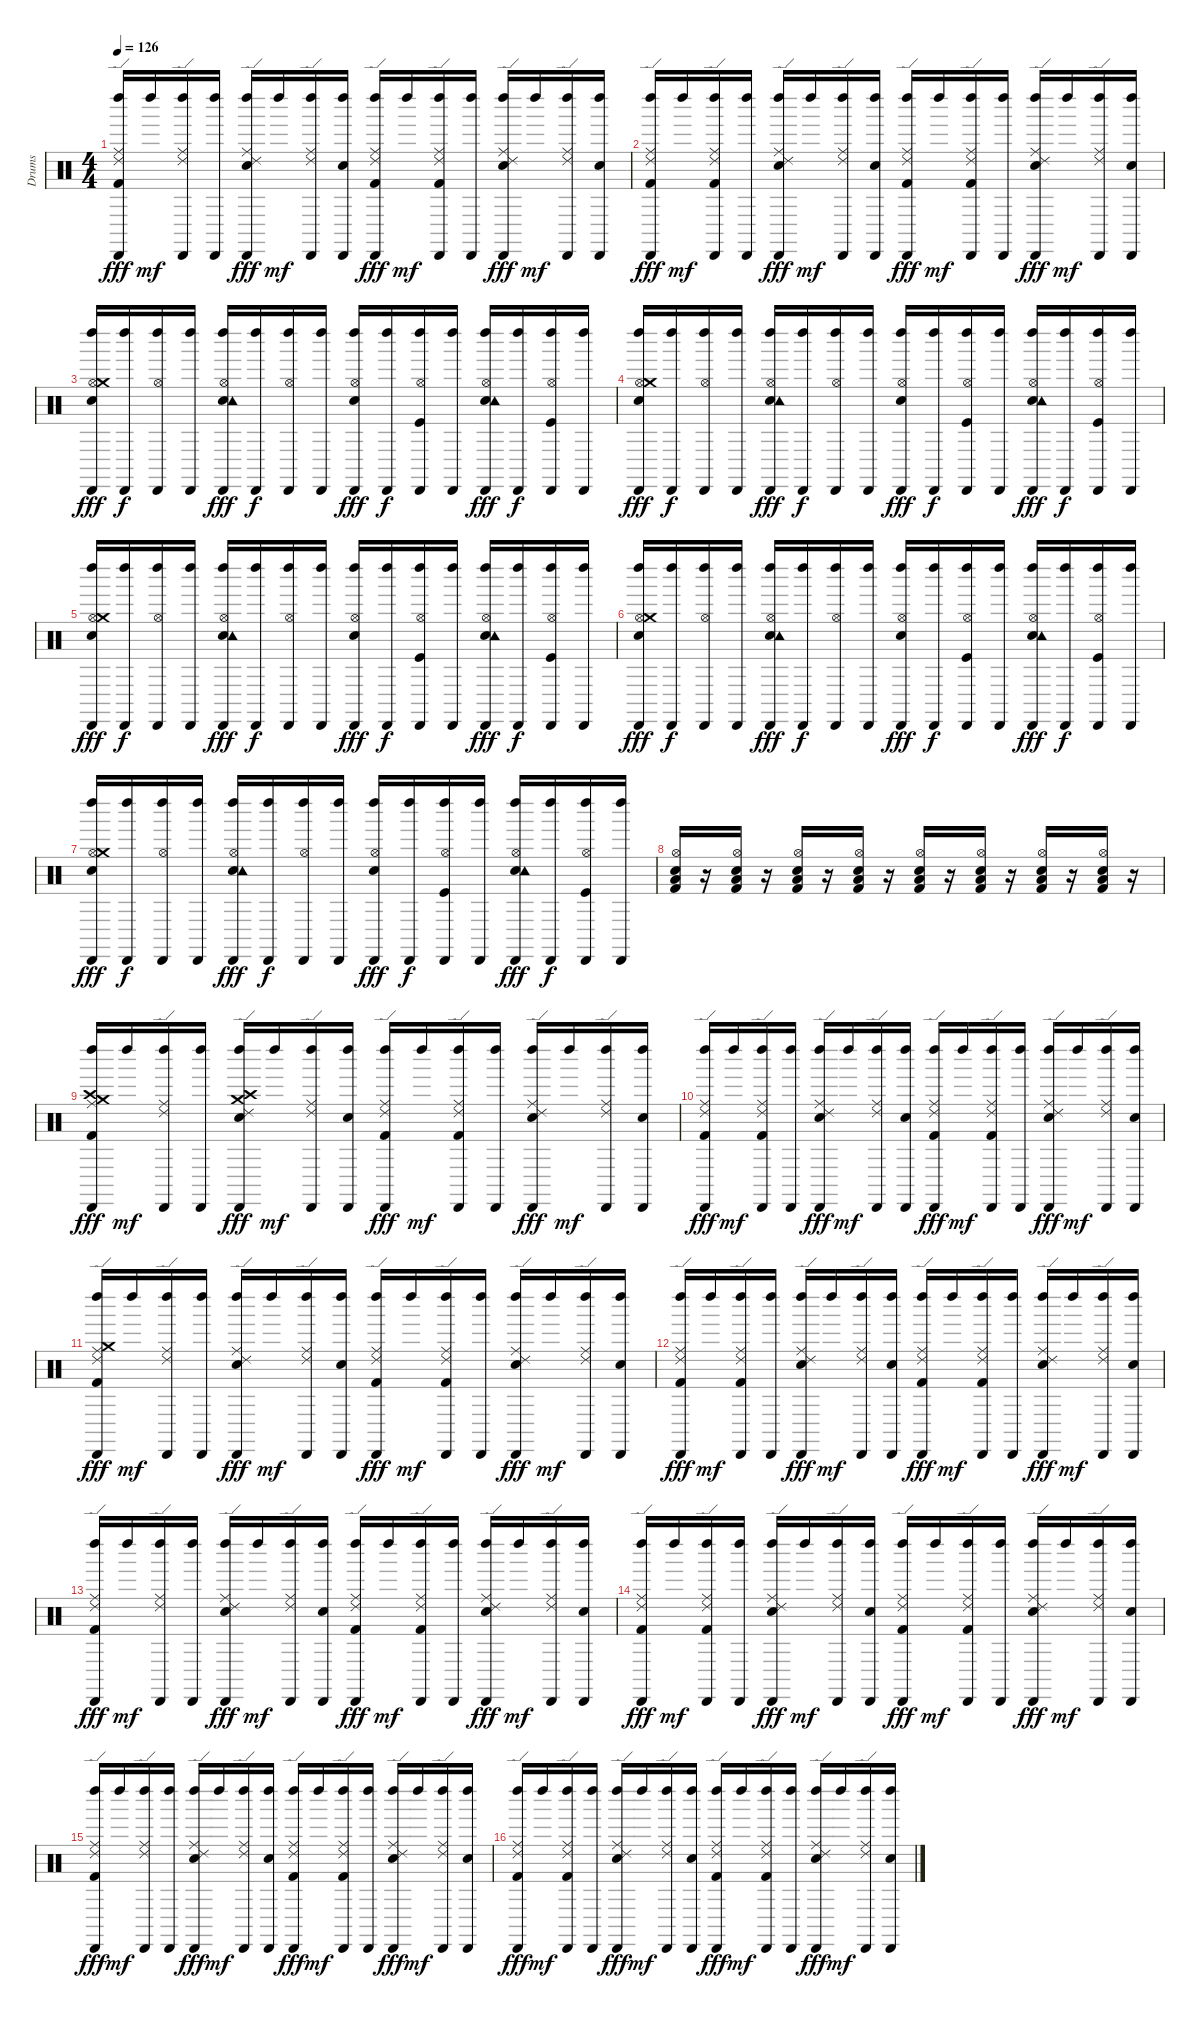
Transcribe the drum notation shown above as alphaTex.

\track ("Drums" "Drums") {instrument percussion}
\staff {score}
\articulation defaults
\ts (4 4)
\tempo 126
\clef neutral
\ks c
("Cabasa (hit)" "Kick (hit) 2" "Left Maraca (hit)" "Ride (middle)" "Ride (edge) 2").16{dy fff} "Left Maraca (hit)".16{dy mf} ("Cabasa (hit)" "Left Maraca (hit)" "Ride (edge) 2" "Ride (middle)").16 ("Cabasa (hit)" "Left Maraca (hit)").16 ("Left Maraca (hit)" "Ride (edge) 2" "Ride (middle)" "Cabasa (hit)" "Electric Snare (hit)").16{dy fff} "Left Maraca (hit)".16{dy mf} ("Ride (edge) 2" "Cabasa (hit)" "Left Maraca (hit)" "Ride (middle)").16 ("Electric Snare (hit)" "Cabasa (hit)" "Left Maraca (hit)").16 ("Kick (hit) 2" "Cabasa (hit)" "Ride (middle)" "Left Maraca (hit)" "Ride (edge) 2").16{dy fff} "Left Maraca (hit)".16{dy mf} ("Cabasa (hit)" "Ride (middle)" "Ride (edge) 2" "Left Maraca (hit)" "Kick (hit) 2").16 ("Left Maraca (hit)" "Cabasa (hit)").16 ("Ride (edge) 2" "Electric Snare (hit)" "Left Maraca (hit)" "Cabasa (hit)" "Ride (middle)").16{dy fff} "Left Maraca (hit)".16{dy mf} ("Left Maraca (hit)" "Cabasa (hit)" "Ride (middle)" "Ride (edge) 2").16 ("Left Maraca (hit)" "Cabasa (hit)" "Electric Snare (hit)").16 |
("Cabasa (hit)" "Kick (hit) 2" "Left Maraca (hit)" "Ride (middle)" "Ride (edge) 2").16{dy fff} "Left Maraca (hit)".16{dy mf} ("Kick (hit) 2" "Cabasa (hit)" "Left Maraca (hit)" "Ride (edge) 2" "Ride (middle)").16 ("Cabasa (hit)" "Left Maraca (hit)").16 ("Left Maraca (hit)" "Ride (edge) 2" "Ride (middle)" "Cabasa (hit)" "Electric Snare (hit)").16{dy fff} "Left Maraca (hit)".16{dy mf} ("Ride (edge) 2" "Cabasa (hit)" "Left Maraca (hit)" "Ride (middle)").16 ("Electric Snare (hit)" "Cabasa (hit)" "Left Maraca (hit)").16 ("Kick (hit) 2" "Cabasa (hit)" "Ride (middle)" "Left Maraca (hit)" "Ride (edge) 2").16{dy fff} "Left Maraca (hit)".16{dy mf} ("Cabasa (hit)" "Ride (middle)" "Ride (edge) 2" "Left Maraca (hit)" "Kick (hit) 2").16 ("Left Maraca (hit)" "Cabasa (hit)").16 ("Ride (edge) 2" "Electric Snare (hit)" "Left Maraca (hit)" "Cabasa (hit)" "Ride (middle)").16{dy fff} "Left Maraca (hit)".16{dy mf} ("Left Maraca (hit)" "Cabasa (hit)" "Ride (middle)" "Ride (edge) 2").16 ("Left Maraca (hit)" "Cabasa (hit)" "Electric Snare (hit)").16 |
("Electric Snare (hit)" "Left Maraca (hit)" "Hi-Hat (open)" "Crash medium (hit)" "Cabasa (hit)").16{dy fff} ("Cabasa (hit)" "Left Maraca (hit)").16{dy f} ("Left Maraca (hit)" "Hi-Hat (open)" "Cabasa (hit)").16 ("Left Maraca (hit)" "Cabasa (hit)").16 ("Electric Snare (hit)" "Tambourine (hit)" "Cabasa (hit)" "Hi-Hat (open)" "Left Maraca (hit)").16{dy fff} ("Left Maraca (hit)" "Cabasa (hit)").16{dy f} ("Left Maraca (hit)" "Cabasa (hit)" "Hi-Hat (open)").16 ("Left Maraca (hit)" "Cabasa (hit)").16 ("Electric Snare (hit)" "Cabasa (hit)" "Hi-Hat (open)" "Left Maraca (hit)").16{dy fff} ("Left Maraca (hit)" "Cabasa (hit)").16{dy f} ("Kick (hit)" "Left Maraca (hit)" "Cabasa (hit)" "Hi-Hat (open)").16 ("Left Maraca (hit)" "Cabasa (hit)").16 ("Electric Snare (hit)" "Left Maraca (hit)" "Hi-Hat (open)" "Cabasa (hit)" "Tambourine (hit)").16{dy fff} ("Left Maraca (hit)" "Cabasa (hit)").16{dy f} ("Kick (hit)" "Hi-Hat (open)" "Cabasa (hit)" "Left Maraca (hit)").16 ("Left Maraca (hit)" "Cabasa (hit)").16 |
("Electric Snare (hit)" "Left Maraca (hit)" "Hi-Hat (open)" "Crash medium (hit)" "Cabasa (hit)").16{dy fff} ("Cabasa (hit)" "Left Maraca (hit)").16{dy f} ("Left Maraca (hit)" "Hi-Hat (open)" "Cabasa (hit)").16 ("Left Maraca (hit)" "Cabasa (hit)").16 ("Electric Snare (hit)" "Tambourine (hit)" "Cabasa (hit)" "Hi-Hat (open)" "Left Maraca (hit)").16{dy fff} ("Left Maraca (hit)" "Cabasa (hit)").16{dy f} ("Left Maraca (hit)" "Cabasa (hit)" "Hi-Hat (open)").16 ("Left Maraca (hit)" "Cabasa (hit)").16 ("Electric Snare (hit)" "Cabasa (hit)" "Hi-Hat (open)" "Left Maraca (hit)").16{dy fff} ("Left Maraca (hit)" "Cabasa (hit)").16{dy f} ("Kick (hit)" "Left Maraca (hit)" "Cabasa (hit)" "Hi-Hat (open)").16 ("Left Maraca (hit)" "Cabasa (hit)").16 ("Electric Snare (hit)" "Left Maraca (hit)" "Hi-Hat (open)" "Cabasa (hit)" "Tambourine (hit)").16{dy fff} ("Left Maraca (hit)" "Cabasa (hit)").16{dy f} ("Kick (hit)" "Hi-Hat (open)" "Cabasa (hit)" "Left Maraca (hit)").16 ("Left Maraca (hit)" "Cabasa (hit)").16 |
("Electric Snare (hit)" "Left Maraca (hit)" "Hi-Hat (open)" "Crash medium (hit)" "Cabasa (hit)").16{dy fff} ("Cabasa (hit)" "Left Maraca (hit)").16{dy f} ("Left Maraca (hit)" "Hi-Hat (open)" "Cabasa (hit)").16 ("Left Maraca (hit)" "Cabasa (hit)").16 ("Electric Snare (hit)" "Tambourine (hit)" "Cabasa (hit)" "Hi-Hat (open)" "Left Maraca (hit)").16{dy fff} ("Left Maraca (hit)" "Cabasa (hit)").16{dy f} ("Left Maraca (hit)" "Cabasa (hit)" "Hi-Hat (open)").16 ("Left Maraca (hit)" "Cabasa (hit)").16 ("Electric Snare (hit)" "Cabasa (hit)" "Hi-Hat (open)" "Left Maraca (hit)").16{dy fff} ("Left Maraca (hit)" "Cabasa (hit)").16{dy f} ("Kick (hit)" "Left Maraca (hit)" "Cabasa (hit)" "Hi-Hat (open)").16 ("Left Maraca (hit)" "Cabasa (hit)").16 ("Electric Snare (hit)" "Left Maraca (hit)" "Hi-Hat (open)" "Cabasa (hit)" "Tambourine (hit)").16{dy fff} ("Left Maraca (hit)" "Cabasa (hit)").16{dy f} ("Kick (hit)" "Hi-Hat (open)" "Cabasa (hit)" "Left Maraca (hit)").16 ("Left Maraca (hit)" "Cabasa (hit)").16 |
("Electric Snare (hit)" "Left Maraca (hit)" "Hi-Hat (open)" "Crash medium (hit)" "Cabasa (hit)").16{dy fff} ("Cabasa (hit)" "Left Maraca (hit)").16{dy f} ("Left Maraca (hit)" "Hi-Hat (open)" "Cabasa (hit)").16 ("Left Maraca (hit)" "Cabasa (hit)").16 ("Electric Snare (hit)" "Tambourine (hit)" "Cabasa (hit)" "Hi-Hat (open)" "Left Maraca (hit)").16{dy fff} ("Left Maraca (hit)" "Cabasa (hit)").16{dy f} ("Left Maraca (hit)" "Cabasa (hit)" "Hi-Hat (open)").16 ("Left Maraca (hit)" "Cabasa (hit)").16 ("Electric Snare (hit)" "Cabasa (hit)" "Hi-Hat (open)" "Left Maraca (hit)").16{dy fff} ("Left Maraca (hit)" "Cabasa (hit)").16{dy f} ("Kick (hit)" "Left Maraca (hit)" "Cabasa (hit)" "Hi-Hat (open)").16 ("Left Maraca (hit)" "Cabasa (hit)").16 ("Electric Snare (hit)" "Left Maraca (hit)" "Hi-Hat (open)" "Cabasa (hit)" "Tambourine (hit)").16{dy fff} ("Left Maraca (hit)" "Cabasa (hit)").16{dy f} ("Kick (hit)" "Hi-Hat (open)" "Cabasa (hit)" "Left Maraca (hit)").16 ("Left Maraca (hit)" "Cabasa (hit)").16 |
("Electric Snare (hit)" "Left Maraca (hit)" "Hi-Hat (open)" "Crash medium (hit)" "Cabasa (hit)").16{dy fff} ("Cabasa (hit)" "Left Maraca (hit)").16{dy f} ("Left Maraca (hit)" "Hi-Hat (open)" "Cabasa (hit)").16 ("Left Maraca (hit)" "Cabasa (hit)").16 ("Electric Snare (hit)" "Tambourine (hit)" "Cabasa (hit)" "Hi-Hat (open)" "Left Maraca (hit)").16{dy fff} ("Left Maraca (hit)" "Cabasa (hit)").16{dy f} ("Left Maraca (hit)" "Cabasa (hit)" "Hi-Hat (open)").16 ("Left Maraca (hit)" "Cabasa (hit)").16 ("Electric Snare (hit)" "Cabasa (hit)" "Hi-Hat (open)" "Left Maraca (hit)").16{dy fff} ("Left Maraca (hit)" "Cabasa (hit)").16{dy f} ("Kick (hit)" "Left Maraca (hit)" "Cabasa (hit)" "Hi-Hat (open)").16 ("Left Maraca (hit)" "Cabasa (hit)").16 ("Electric Snare (hit)" "Left Maraca (hit)" "Hi-Hat (open)" "Cabasa (hit)" "Tambourine (hit)").16{dy fff} ("Left Maraca (hit)" "Cabasa (hit)").16{dy f} ("Kick (hit)" "Hi-Hat (open)" "Cabasa (hit)" "Left Maraca (hit)").16 ("Left Maraca (hit)" "Cabasa (hit)").16 |
("Electric Snare (hit)" "Kick (hit) 2" "Hi-Hat (open)" "Low Tom (hit)").16 r.16 ("Kick (hit) 2" "Hi-Hat (open)" "Electric Snare (hit)" "Low Tom (hit)").16 r.16 ("Electric Snare (hit)" "Kick (hit) 2" "Low Tom (hit)" "Hi-Hat (open)").16 r.16 ("Hi-Hat (open)" "Kick (hit) 2" "Low Tom (hit)" "Electric Snare (hit)").16 r.16 ("Hi-Hat (open)" "Low Tom (hit)" "Electric Snare (hit)" "Kick (hit) 2").16 r.16 ("Low Tom (hit)" "Electric Snare (hit)" "Kick (hit) 2" "Hi-Hat (open)").16 r.16 ("Kick (hit) 2" "Hi-Hat (open)" "Low Tom (hit)" "Electric Snare (hit)").16 r.16 ("Electric Snare (hit)" "Kick (hit) 2" "Hi-Hat (open)" "Low Tom (hit)").16 r.16 |
("Left Maraca (hit)" "Crash medium (hit)" "Crash high (hit)" "Kick (hit) 2" "Cabasa (hit)" "Ride (middle)").16{dy fff} "Left Maraca (hit)".16{dy mf} ("Cabasa (hit)" "Left Maraca (hit)" "Ride (edge) 2" "Ride (middle)").16 ("Cabasa (hit)" "Left Maraca (hit)").16 ("Electric Snare (hit)" "Crash medium (hit)" "Crash high (hit)" "Left Maraca (hit)" "Cabasa (hit)" "Ride (edge) 2").16{dy fff} "Left Maraca (hit)".16{dy mf} ("Cabasa (hit)" "Left Maraca (hit)" "Ride (edge) 2" "Ride (middle)").16 ("Cabasa (hit)" "Left Maraca (hit)" "Electric Snare (hit)").16 ("Cabasa (hit)" "Left Maraca (hit)" "Kick (hit) 2" "Ride (middle)" "Ride (edge) 2").16{dy fff} "Left Maraca (hit)".16{dy mf} ("Kick (hit) 2" "Left Maraca (hit)" "Cabasa (hit)" "Ride (middle)" "Ride (edge) 2").16 ("Cabasa (hit)" "Left Maraca (hit)").16 ("Ride (edge) 2" "Electric Snare (hit)" "Ride (middle)" "Cabasa (hit)" "Left Maraca (hit)").16{dy fff} "Left Maraca (hit)".16{dy mf} ("Left Maraca (hit)" "Ride (middle)" "Ride (edge) 2" "Cabasa (hit)").16 ("Electric Snare (hit)" "Left Maraca (hit)" "Cabasa (hit)").16 |
("Cabasa (hit)" "Kick (hit) 2" "Left Maraca (hit)" "Ride (middle)" "Ride (edge) 2").16{dy fff} "Left Maraca (hit)".16{dy mf} ("Kick (hit) 2" "Cabasa (hit)" "Left Maraca (hit)" "Ride (edge) 2" "Ride (middle)").16 ("Cabasa (hit)" "Left Maraca (hit)").16 ("Left Maraca (hit)" "Ride (edge) 2" "Ride (middle)" "Cabasa (hit)" "Electric Snare (hit)").16{dy fff} "Left Maraca (hit)".16{dy mf} ("Ride (edge) 2" "Cabasa (hit)" "Left Maraca (hit)" "Ride (middle)").16 ("Electric Snare (hit)" "Cabasa (hit)" "Left Maraca (hit)").16 ("Kick (hit) 2" "Cabasa (hit)" "Ride (middle)" "Left Maraca (hit)" "Ride (edge) 2").16{dy fff} "Left Maraca (hit)".16{dy mf} ("Cabasa (hit)" "Ride (middle)" "Ride (edge) 2" "Left Maraca (hit)" "Kick (hit) 2").16 ("Left Maraca (hit)" "Cabasa (hit)").16 ("Ride (edge) 2" "Electric Snare (hit)" "Left Maraca (hit)" "Cabasa (hit)" "Ride (middle)").16{dy fff} "Left Maraca (hit)".16{dy mf} ("Left Maraca (hit)" "Cabasa (hit)" "Ride (middle)" "Ride (edge) 2").16 ("Left Maraca (hit)" "Cabasa (hit)" "Electric Snare (hit)").16 |
("Crash medium (hit)" "Cabasa (hit)" "Kick (hit) 2" "Left Maraca (hit)" "Ride (middle)" "Ride (edge) 2").16{dy fff} "Left Maraca (hit)".16{dy mf} ("Cabasa (hit)" "Left Maraca (hit)" "Ride (edge) 2" "Ride (middle)").16 ("Cabasa (hit)" "Left Maraca (hit)").16 ("Left Maraca (hit)" "Ride (edge) 2" "Ride (middle)" "Cabasa (hit)" "Electric Snare (hit)").16{dy fff} "Left Maraca (hit)".16{dy mf} ("Ride (edge) 2" "Cabasa (hit)" "Left Maraca (hit)" "Ride (middle)").16 ("Electric Snare (hit)" "Cabasa (hit)" "Left Maraca (hit)").16 ("Kick (hit) 2" "Cabasa (hit)" "Ride (middle)" "Left Maraca (hit)" "Ride (edge) 2").16{dy fff} "Left Maraca (hit)".16{dy mf} ("Cabasa (hit)" "Ride (middle)" "Ride (edge) 2" "Left Maraca (hit)" "Kick (hit) 2").16 ("Left Maraca (hit)" "Cabasa (hit)").16 ("Ride (edge) 2" "Electric Snare (hit)" "Left Maraca (hit)" "Cabasa (hit)" "Ride (middle)").16{dy fff} "Left Maraca (hit)".16{dy mf} ("Left Maraca (hit)" "Cabasa (hit)" "Ride (middle)" "Ride (edge) 2").16 ("Left Maraca (hit)" "Cabasa (hit)" "Electric Snare (hit)").16 |
("Cabasa (hit)" "Kick (hit) 2" "Left Maraca (hit)" "Ride (middle)" "Ride (edge) 2").16{dy fff} "Left Maraca (hit)".16{dy mf} ("Kick (hit) 2" "Cabasa (hit)" "Left Maraca (hit)" "Ride (edge) 2" "Ride (middle)").16 ("Cabasa (hit)" "Left Maraca (hit)").16 ("Left Maraca (hit)" "Ride (edge) 2" "Ride (middle)" "Cabasa (hit)" "Electric Snare (hit)").16{dy fff} "Left Maraca (hit)".16{dy mf} ("Ride (edge) 2" "Cabasa (hit)" "Left Maraca (hit)" "Ride (middle)").16 ("Electric Snare (hit)" "Cabasa (hit)" "Left Maraca (hit)").16 ("Kick (hit) 2" "Cabasa (hit)" "Ride (middle)" "Left Maraca (hit)" "Ride (edge) 2").16{dy fff} "Left Maraca (hit)".16{dy mf} ("Cabasa (hit)" "Ride (middle)" "Ride (edge) 2" "Left Maraca (hit)" "Kick (hit) 2").16 ("Left Maraca (hit)" "Cabasa (hit)").16 ("Ride (edge) 2" "Electric Snare (hit)" "Left Maraca (hit)" "Cabasa (hit)" "Ride (middle)").16{dy fff} "Left Maraca (hit)".16{dy mf} ("Left Maraca (hit)" "Cabasa (hit)" "Ride (middle)" "Ride (edge) 2").16 ("Left Maraca (hit)" "Cabasa (hit)" "Electric Snare (hit)").16 |
("Cabasa (hit)" "Kick (hit) 2" "Left Maraca (hit)" "Ride (middle)" "Ride (edge) 2").16{dy fff} "Left Maraca (hit)".16{dy mf} ("Cabasa (hit)" "Left Maraca (hit)" "Ride (edge) 2" "Ride (middle)").16 ("Cabasa (hit)" "Left Maraca (hit)").16 ("Left Maraca (hit)" "Ride (edge) 2" "Ride (middle)" "Cabasa (hit)" "Electric Snare (hit)").16{dy fff} "Left Maraca (hit)".16{dy mf} ("Ride (edge) 2" "Cabasa (hit)" "Left Maraca (hit)" "Ride (middle)").16 ("Electric Snare (hit)" "Cabasa (hit)" "Left Maraca (hit)").16 ("Kick (hit) 2" "Cabasa (hit)" "Ride (middle)" "Left Maraca (hit)" "Ride (edge) 2").16{dy fff} "Left Maraca (hit)".16{dy mf} ("Cabasa (hit)" "Ride (middle)" "Ride (edge) 2" "Left Maraca (hit)" "Kick (hit) 2").16 ("Left Maraca (hit)" "Cabasa (hit)").16 ("Ride (edge) 2" "Electric Snare (hit)" "Left Maraca (hit)" "Cabasa (hit)" "Ride (middle)").16{dy fff} "Left Maraca (hit)".16{dy mf} ("Left Maraca (hit)" "Cabasa (hit)" "Ride (middle)" "Ride (edge) 2").16 ("Left Maraca (hit)" "Cabasa (hit)" "Electric Snare (hit)").16 |
("Cabasa (hit)" "Kick (hit) 2" "Left Maraca (hit)" "Ride (middle)" "Ride (edge) 2").16{dy fff} "Left Maraca (hit)".16{dy mf} ("Kick (hit) 2" "Cabasa (hit)" "Left Maraca (hit)" "Ride (edge) 2" "Ride (middle)").16 ("Cabasa (hit)" "Left Maraca (hit)").16 ("Left Maraca (hit)" "Ride (edge) 2" "Ride (middle)" "Cabasa (hit)" "Electric Snare (hit)").16{dy fff} "Left Maraca (hit)".16{dy mf} ("Ride (edge) 2" "Cabasa (hit)" "Left Maraca (hit)" "Ride (middle)").16 ("Electric Snare (hit)" "Cabasa (hit)" "Left Maraca (hit)").16 ("Kick (hit) 2" "Cabasa (hit)" "Ride (middle)" "Left Maraca (hit)" "Ride (edge) 2").16{dy fff} "Left Maraca (hit)".16{dy mf} ("Cabasa (hit)" "Ride (middle)" "Ride (edge) 2" "Left Maraca (hit)" "Kick (hit) 2").16 ("Left Maraca (hit)" "Cabasa (hit)").16 ("Ride (edge) 2" "Electric Snare (hit)" "Left Maraca (hit)" "Cabasa (hit)" "Ride (middle)").16{dy fff} "Left Maraca (hit)".16{dy mf} ("Left Maraca (hit)" "Cabasa (hit)" "Ride (middle)" "Ride (edge) 2").16 ("Left Maraca (hit)" "Cabasa (hit)" "Electric Snare (hit)").16 |
("Cabasa (hit)" "Kick (hit) 2" "Left Maraca (hit)" "Ride (middle)" "Ride (edge) 2").16{dy fff} "Left Maraca (hit)".16{dy mf} ("Cabasa (hit)" "Left Maraca (hit)" "Ride (edge) 2" "Ride (middle)").16 ("Cabasa (hit)" "Left Maraca (hit)").16 ("Left Maraca (hit)" "Ride (edge) 2" "Ride (middle)" "Cabasa (hit)" "Electric Snare (hit)").16{dy fff} "Left Maraca (hit)".16{dy mf} ("Ride (edge) 2" "Cabasa (hit)" "Left Maraca (hit)" "Ride (middle)").16 ("Electric Snare (hit)" "Cabasa (hit)" "Left Maraca (hit)").16 ("Kick (hit) 2" "Cabasa (hit)" "Ride (middle)" "Left Maraca (hit)" "Ride (edge) 2").16{dy fff} "Left Maraca (hit)".16{dy mf} ("Cabasa (hit)" "Ride (middle)" "Ride (edge) 2" "Left Maraca (hit)" "Kick (hit) 2").16 ("Left Maraca (hit)" "Cabasa (hit)").16 ("Ride (edge) 2" "Electric Snare (hit)" "Left Maraca (hit)" "Cabasa (hit)" "Ride (middle)").16{dy fff} "Left Maraca (hit)".16{dy mf} ("Left Maraca (hit)" "Cabasa (hit)" "Ride (middle)" "Ride (edge) 2").16 ("Left Maraca (hit)" "Cabasa (hit)" "Electric Snare (hit)").16 |
("Cabasa (hit)" "Kick (hit) 2" "Left Maraca (hit)" "Ride (middle)" "Ride (edge) 2").16{dy fff} "Left Maraca (hit)".16{dy mf} ("Kick (hit) 2" "Cabasa (hit)" "Left Maraca (hit)" "Ride (edge) 2" "Ride (middle)").16 ("Cabasa (hit)" "Left Maraca (hit)").16 ("Left Maraca (hit)" "Ride (edge) 2" "Ride (middle)" "Cabasa (hit)" "Electric Snare (hit)").16{dy fff} "Left Maraca (hit)".16{dy mf} ("Ride (edge) 2" "Cabasa (hit)" "Left Maraca (hit)" "Ride (middle)").16 ("Electric Snare (hit)" "Cabasa (hit)" "Left Maraca (hit)").16 ("Kick (hit) 2" "Cabasa (hit)" "Ride (middle)" "Left Maraca (hit)" "Ride (edge) 2").16{dy fff} "Left Maraca (hit)".16{dy mf} ("Cabasa (hit)" "Ride (middle)" "Ride (edge) 2" "Left Maraca (hit)" "Kick (hit) 2").16 ("Left Maraca (hit)" "Cabasa (hit)").16 ("Ride (edge) 2" "Electric Snare (hit)" "Left Maraca (hit)" "Cabasa (hit)" "Ride (middle)").16{dy fff} "Left Maraca (hit)".16{dy mf} ("Left Maraca (hit)" "Cabasa (hit)" "Ride (middle)" "Ride (edge) 2").16 ("Left Maraca (hit)" "Cabasa (hit)" "Electric Snare (hit)").16
